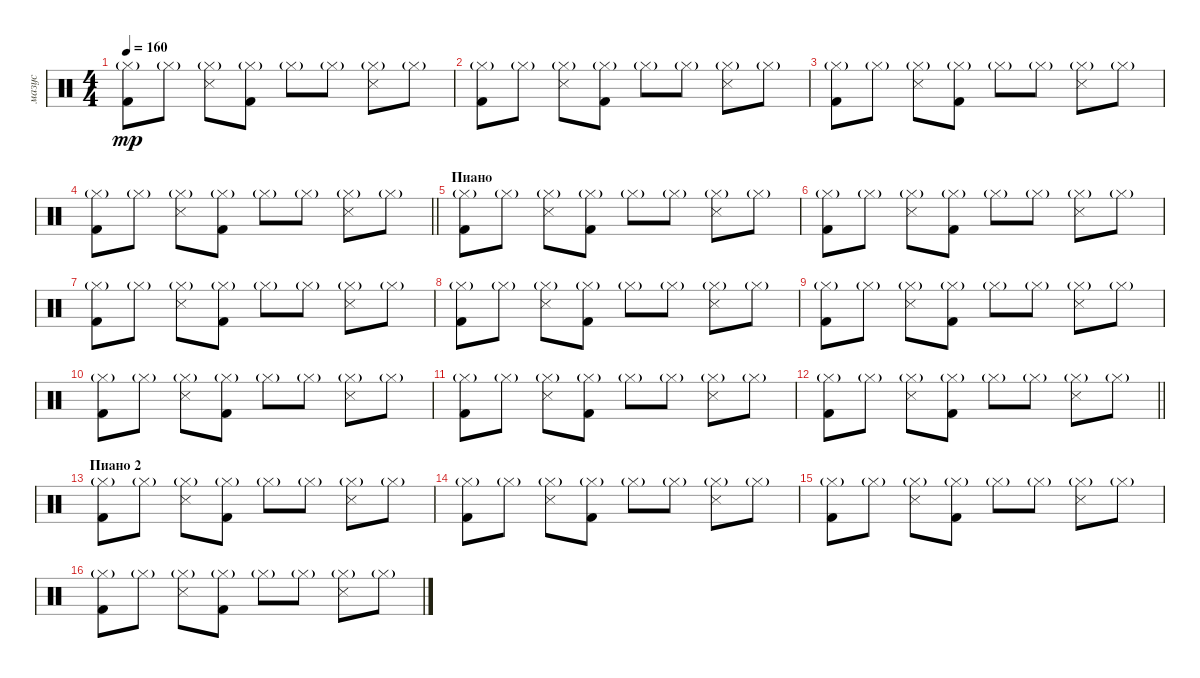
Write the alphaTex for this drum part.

\track ("мазус" "мазус") {instrument percussion}
\staff {score}
\articulation defaults
\ts (4 4)
\tempo 160
\clef neutral
\ks c
("Kick (hit) 2" "Hi-Hat (closed)"{g}).8{dy mp} "Hi-Hat (closed)"{g}.8 ("Snare (side stick) 3" "Hi-Hat (closed)"{g}).8 ("Kick (hit) 2" "Hi-Hat (closed)"{g}).8 "Hi-Hat (closed)"{g}.8 "Hi-Hat (closed)"{g}.8 ("Snare (side stick) 3" "Hi-Hat (closed)"{g}).8 "Hi-Hat (closed)"{g}.8 |
("Kick (hit) 2" "Hi-Hat (closed)"{g}).8 "Hi-Hat (closed)"{g}.8 ("Snare (side stick) 3" "Hi-Hat (closed)"{g}).8 ("Kick (hit) 2" "Hi-Hat (closed)"{g}).8 "Hi-Hat (closed)"{g}.8 "Hi-Hat (closed)"{g}.8 ("Snare (side stick) 3" "Hi-Hat (closed)"{g}).8 "Hi-Hat (closed)"{g}.8 |
("Kick (hit) 2" "Hi-Hat (closed)"{g}).8 "Hi-Hat (closed)"{g}.8 ("Snare (side stick) 3" "Hi-Hat (closed)"{g}).8 ("Kick (hit) 2" "Hi-Hat (closed)"{g}).8 "Hi-Hat (closed)"{g}.8 "Hi-Hat (closed)"{g}.8 ("Snare (side stick) 3" "Hi-Hat (closed)"{g}).8 "Hi-Hat (closed)"{g}.8 |
\barLineRight lightlight
("Kick (hit) 2" "Hi-Hat (closed)"{g}).8 "Hi-Hat (closed)"{g}.8 ("Snare (side stick) 3" "Hi-Hat (closed)"{g}).8 ("Kick (hit) 2" "Hi-Hat (closed)"{g}).8 "Hi-Hat (closed)"{g}.8 "Hi-Hat (closed)"{g}.8 ("Snare (side stick) 3" "Hi-Hat (closed)"{g}).8 "Hi-Hat (closed)"{g}.8 |
\section ("" "Пиано")
("Kick (hit) 2" "Hi-Hat (closed)"{g}).8 "Hi-Hat (closed)"{g}.8 ("Snare (side stick) 3" "Hi-Hat (closed)"{g}).8 ("Kick (hit) 2" "Hi-Hat (closed)"{g}).8 "Hi-Hat (closed)"{g}.8 "Hi-Hat (closed)"{g}.8 ("Snare (side stick) 3" "Hi-Hat (closed)"{g}).8 "Hi-Hat (closed)"{g}.8 |
("Kick (hit) 2" "Hi-Hat (closed)"{g}).8 "Hi-Hat (closed)"{g}.8 ("Snare (side stick) 3" "Hi-Hat (closed)"{g}).8 ("Kick (hit) 2" "Hi-Hat (closed)"{g}).8 "Hi-Hat (closed)"{g}.8 "Hi-Hat (closed)"{g}.8 ("Snare (side stick) 3" "Hi-Hat (closed)"{g}).8 "Hi-Hat (closed)"{g}.8 |
("Kick (hit) 2" "Hi-Hat (closed)"{g}).8 "Hi-Hat (closed)"{g}.8 ("Snare (side stick) 3" "Hi-Hat (closed)"{g}).8 ("Kick (hit) 2" "Hi-Hat (closed)"{g}).8 "Hi-Hat (closed)"{g}.8 "Hi-Hat (closed)"{g}.8 ("Snare (side stick) 3" "Hi-Hat (closed)"{g}).8 "Hi-Hat (closed)"{g}.8 |
("Kick (hit) 2" "Hi-Hat (closed)"{g}).8 "Hi-Hat (closed)"{g}.8 ("Snare (side stick) 3" "Hi-Hat (closed)"{g}).8 ("Kick (hit) 2" "Hi-Hat (closed)"{g}).8 "Hi-Hat (closed)"{g}.8 "Hi-Hat (closed)"{g}.8 ("Snare (side stick) 3" "Hi-Hat (closed)"{g}).8 "Hi-Hat (closed)"{g}.8 |
("Kick (hit) 2" "Hi-Hat (closed)"{g}).8 "Hi-Hat (closed)"{g}.8 ("Snare (side stick) 3" "Hi-Hat (closed)"{g}).8 ("Kick (hit) 2" "Hi-Hat (closed)"{g}).8 "Hi-Hat (closed)"{g}.8 "Hi-Hat (closed)"{g}.8 ("Snare (side stick) 3" "Hi-Hat (closed)"{g}).8 "Hi-Hat (closed)"{g}.8 |
("Kick (hit) 2" "Hi-Hat (closed)"{g}).8 "Hi-Hat (closed)"{g}.8 ("Snare (side stick) 3" "Hi-Hat (closed)"{g}).8 ("Kick (hit) 2" "Hi-Hat (closed)"{g}).8 "Hi-Hat (closed)"{g}.8 "Hi-Hat (closed)"{g}.8 ("Snare (side stick) 3" "Hi-Hat (closed)"{g}).8 "Hi-Hat (closed)"{g}.8 |
("Kick (hit) 2" "Hi-Hat (closed)"{g}).8 "Hi-Hat (closed)"{g}.8 ("Snare (side stick) 3" "Hi-Hat (closed)"{g}).8 ("Kick (hit) 2" "Hi-Hat (closed)"{g}).8 "Hi-Hat (closed)"{g}.8 "Hi-Hat (closed)"{g}.8 ("Snare (side stick) 3" "Hi-Hat (closed)"{g}).8 "Hi-Hat (closed)"{g}.8 |
\barLineRight lightlight
("Kick (hit) 2" "Hi-Hat (closed)"{g}).8 "Hi-Hat (closed)"{g}.8 ("Snare (side stick) 3" "Hi-Hat (closed)"{g}).8 ("Kick (hit) 2" "Hi-Hat (closed)"{g}).8 "Hi-Hat (closed)"{g}.8 "Hi-Hat (closed)"{g}.8 ("Snare (side stick) 3" "Hi-Hat (closed)"{g}).8 "Hi-Hat (closed)"{g}.8 |
\section ("" "Пиано 2")
("Kick (hit) 2" "Hi-Hat (closed)"{g}).8 "Hi-Hat (closed)"{g}.8 ("Snare (side stick) 3" "Hi-Hat (closed)"{g}).8 ("Kick (hit) 2" "Hi-Hat (closed)"{g}).8 "Hi-Hat (closed)"{g}.8 "Hi-Hat (closed)"{g}.8 ("Snare (side stick) 3" "Hi-Hat (closed)"{g}).8 "Hi-Hat (closed)"{g}.8 |
("Kick (hit) 2" "Hi-Hat (closed)"{g}).8 "Hi-Hat (closed)"{g}.8 ("Snare (side stick) 3" "Hi-Hat (closed)"{g}).8 ("Kick (hit) 2" "Hi-Hat (closed)"{g}).8 "Hi-Hat (closed)"{g}.8 "Hi-Hat (closed)"{g}.8 ("Snare (side stick) 3" "Hi-Hat (closed)"{g}).8 "Hi-Hat (closed)"{g}.8 |
("Kick (hit) 2" "Hi-Hat (closed)"{g}).8 "Hi-Hat (closed)"{g}.8 ("Snare (side stick) 3" "Hi-Hat (closed)"{g}).8 ("Kick (hit) 2" "Hi-Hat (closed)"{g}).8 "Hi-Hat (closed)"{g}.8 "Hi-Hat (closed)"{g}.8 ("Snare (side stick) 3" "Hi-Hat (closed)"{g}).8 "Hi-Hat (closed)"{g}.8 |
("Kick (hit) 2" "Hi-Hat (closed)"{g}).8 "Hi-Hat (closed)"{g}.8 ("Snare (side stick) 3" "Hi-Hat (closed)"{g}).8 ("Kick (hit) 2" "Hi-Hat (closed)"{g}).8 "Hi-Hat (closed)"{g}.8 "Hi-Hat (closed)"{g}.8 ("Snare (side stick) 3" "Hi-Hat (closed)"{g}).8 "Hi-Hat (closed)"{g}.8
